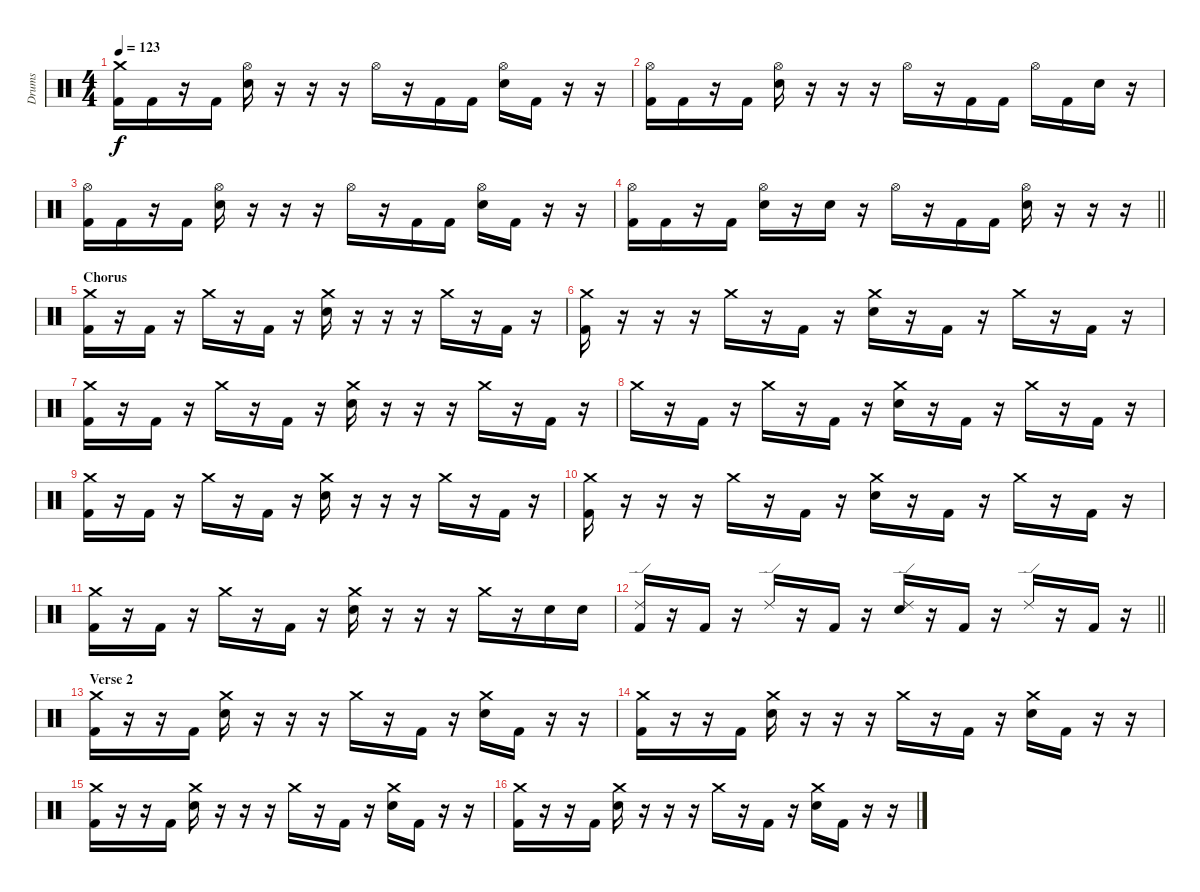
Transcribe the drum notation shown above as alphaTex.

\track ("Drums" "Drums") {instrument percussion}
\staff {score}
\articulation defaults
\ts (4 4)
\tempo 123
\clef neutral
\ks c
("Crash medium (hit)" "Kick (hit) 2").16{dy f} "Kick (hit) 2".16 r.16 "Kick (hit) 2".16 ("Hi-Hat (open)" "Electric Snare (hit)").16 r.16 r.16 r.16 "Hi-Hat (open)".16 r.16 "Kick (hit) 2".16 "Kick (hit) 2".16 ("Hi-Hat (open)" "Electric Snare (hit)").16 "Kick (hit) 2".16 r.16 r.16 |
("Hi-Hat (open)" "Kick (hit) 2").16 "Kick (hit) 2".16 r.16 "Kick (hit) 2".16 ("Hi-Hat (open)" "Electric Snare (hit)").16 r.16 r.16 r.16 "Hi-Hat (open)".16 r.16 "Kick (hit) 2".16 "Kick (hit) 2".16 "Hi-Hat (open)".16 "Kick (hit) 2".16 "Electric Snare (hit)".16 r.16 |
("Hi-Hat (open)" "Kick (hit) 2").16 "Kick (hit) 2".16 r.16 "Kick (hit) 2".16 ("Hi-Hat (open)" "Electric Snare (hit)").16 r.16 r.16 r.16 "Hi-Hat (open)".16 r.16 "Kick (hit) 2".16 "Kick (hit) 2".16 ("Hi-Hat (open)" "Electric Snare (hit)").16 "Kick (hit) 2".16 r.16 r.16 |
\barLineRight lightlight
("Hi-Hat (open)" "Kick (hit) 2").16 "Kick (hit) 2".16 r.16 "Kick (hit) 2".16 ("Hi-Hat (open)" "Electric Snare (hit)").16 r.16 "Electric Snare (hit)".16 r.16 "Hi-Hat (open)".16 r.16 "Kick (hit) 2".16 "Kick (hit) 2".16 ("Hi-Hat (open)" "Electric Snare (hit)").16 r.16 r.16 r.16 |
\section ("" "Chorus")
("Crash medium (hit)" "Kick (hit) 2").16 r.16 "Kick (hit) 2".16 r.16 "Crash medium (hit)".16 r.16 "Kick (hit) 2".16 r.16 ("Crash medium (hit)" "Electric Snare (hit)").16 r.16 r.16 r.16 "Crash medium (hit)".16 r.16 "Kick (hit) 2".16 r.16 |
("Crash medium (hit)" "Kick (hit) 2").16 r.16 r.16 r.16 "Crash medium (hit)".16 r.16 "Kick (hit) 2".16 r.16 ("Crash medium (hit)" "Electric Snare (hit)").16 r.16 "Kick (hit) 2".16 r.16 "Crash medium (hit)".16 r.16 "Kick (hit) 2".16 r.16 |
("Crash medium (hit)" "Kick (hit) 2").16 r.16 "Kick (hit) 2".16 r.16 "Crash medium (hit)".16 r.16 "Kick (hit) 2".16 r.16 ("Crash medium (hit)" "Electric Snare (hit)").16 r.16 r.16 r.16 "Crash medium (hit)".16 r.16 "Kick (hit) 2".16 r.16 |
"Crash medium (hit)".16 r.16 "Kick (hit) 2".16 r.16 "Crash medium (hit)".16 r.16 "Kick (hit) 2".16 r.16 ("Crash medium (hit)" "Electric Snare (hit)").16 r.16 "Kick (hit) 2".16 r.16 "Crash medium (hit)".16 r.16 "Kick (hit) 2".16 r.16 |
("Crash medium (hit)" "Kick (hit) 2").16 r.16 "Kick (hit) 2".16 r.16 "Crash medium (hit)".16 r.16 "Kick (hit) 2".16 r.16 ("Crash medium (hit)" "Electric Snare (hit)").16 r.16 r.16 r.16 "Crash medium (hit)".16 r.16 "Kick (hit) 2".16 r.16 |
("Crash medium (hit)" "Kick (hit) 2").16 r.16 r.16 r.16 "Crash medium (hit)".16 r.16 "Kick (hit) 2".16 r.16 ("Crash medium (hit)" "Electric Snare (hit)").16 r.16 "Kick (hit) 2".16 r.16 "Crash medium (hit)".16 r.16 "Kick (hit) 2".16 r.16 |
("Crash medium (hit)" "Kick (hit) 2").16 r.16 "Kick (hit) 2".16 r.16 "Crash medium (hit)".16 r.16 "Kick (hit) 2".16 r.16 ("Crash medium (hit)" "Electric Snare (hit)").16 r.16 r.16 r.16 "Crash medium (hit)".16 r.16 "Electric Snare (hit)".16 "Electric Snare (hit)".16 |
\barLineRight lightlight
("Ride (edge) 2" "Kick (hit) 2").16 r.16 "Kick (hit) 2".16 r.16 "Ride (edge) 2".16 r.16 "Kick (hit) 2".16 r.16 ("Ride (edge) 2" "Electric Snare (hit)").16 r.16 "Kick (hit) 2".16 r.16 "Ride (edge) 2".16 r.16 "Kick (hit) 2".16 r.16 |
\section ("" "Verse 2")
("Crash medium (hit)" "Kick (hit) 2").16 r.16 r.16 "Kick (hit) 2".16 ("Crash medium (hit)" "Electric Snare (hit)").16 r.16 r.16 r.16 "Crash medium (hit)".16 r.16 "Kick (hit) 2".16 r.16 ("Crash medium (hit)" "Electric Snare (hit)").16 "Kick (hit) 2".16 r.16 r.16 |
("Crash medium (hit)" "Kick (hit) 2").16 r.16 r.16 "Kick (hit) 2".16 ("Crash medium (hit)" "Electric Snare (hit)").16 r.16 r.16 r.16 "Crash medium (hit)".16 r.16 "Kick (hit) 2".16 r.16 ("Crash medium (hit)" "Electric Snare (hit)").16 "Kick (hit) 2".16 r.16 r.16 |
("Crash medium (hit)" "Kick (hit) 2").16 r.16 r.16 "Kick (hit) 2".16 ("Crash medium (hit)" "Electric Snare (hit)").16 r.16 r.16 r.16 "Crash medium (hit)".16 r.16 "Kick (hit) 2".16 r.16 ("Crash medium (hit)" "Electric Snare (hit)").16 "Kick (hit) 2".16 r.16 r.16 |
("Crash medium (hit)" "Kick (hit) 2").16 r.16 r.16 "Kick (hit) 2".16 ("Crash medium (hit)" "Electric Snare (hit)").16 r.16 r.16 r.16 "Crash medium (hit)".16 r.16 "Kick (hit) 2".16 r.16 ("Crash medium (hit)" "Electric Snare (hit)").16 "Kick (hit) 2".16 r.16 r.16
